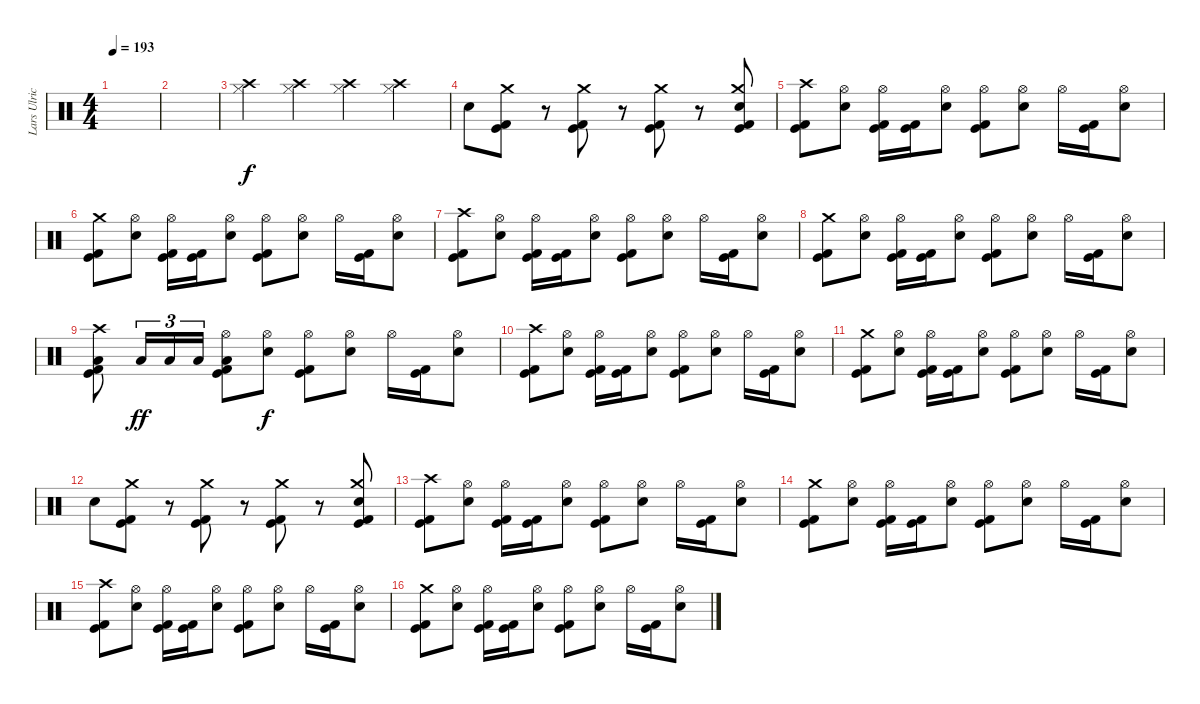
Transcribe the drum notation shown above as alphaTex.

\track ("Lars Ulrich" "Lars Ulric") {instrument percussion}
\staff {score}
\articulation defaults
\ts (4 4)
\tempo 193
\clef neutral
\ks c
|
|
("Hi-Hat (closed)" "Crash high (hit)").4 ("Hi-Hat (closed)" "Crash high (hit)").4 ("Hi-Hat (closed)" "Crash high (hit)").4 ("Hi-Hat (closed)" "Crash high (hit)").4 |
"Electric Snare (hit)".8 ("Crash medium (hit)" "Kick (hit) 2" "Kick (hit)").8 r.8 ("Crash medium (hit)" "Kick (hit)" "Kick (hit) 2").8 r.8 ("Crash medium (hit)" "Kick (hit)" "Kick (hit) 2").8 r.8 ("Crash medium (hit)" "Electric Snare (hit)" "Kick (hit)" "Kick (hit) 2").8 |
("Crash high (hit)" "Kick (hit) 2" "Kick (hit)").8 ("Hi-Hat (open)" "Electric Snare (hit)").8 ("Hi-Hat (open)" "Kick (hit) 2" "Kick (hit)").16 ("Kick (hit) 2" "Kick (hit)").16 ("Hi-Hat (open)" "Electric Snare (hit)").8 ("Hi-Hat (open)" "Kick (hit) 2" "Kick (hit)").8 ("Hi-Hat (open)" "Electric Snare (hit)").8 "Hi-Hat (open)".16 ("Kick (hit) 2" "Kick (hit)").16 ("Hi-Hat (open)" "Electric Snare (hit)").8 |
("Crash medium (hit)" "Kick (hit) 2" "Kick (hit)").8 ("Hi-Hat (open)" "Electric Snare (hit)").8 ("Hi-Hat (open)" "Kick (hit) 2" "Kick (hit)").16 ("Kick (hit) 2" "Kick (hit)").16 ("Hi-Hat (open)" "Electric Snare (hit)").8 ("Hi-Hat (open)" "Kick (hit) 2" "Kick (hit)").8 ("Hi-Hat (open)" "Electric Snare (hit)").8 "Hi-Hat (open)".16 ("Kick (hit) 2" "Kick (hit)").16 ("Hi-Hat (open)" "Electric Snare (hit)").8 |
("Crash high (hit)" "Kick (hit) 2" "Kick (hit)").8 ("Hi-Hat (open)" "Electric Snare (hit)").8 ("Hi-Hat (open)" "Kick (hit) 2" "Kick (hit)").16 ("Kick (hit) 2" "Kick (hit)").16 ("Hi-Hat (open)" "Electric Snare (hit)").8 ("Hi-Hat (open)" "Kick (hit) 2" "Kick (hit)").8 ("Hi-Hat (open)" "Electric Snare (hit)").8 "Hi-Hat (open)".16 ("Kick (hit) 2" "Kick (hit)").16 ("Hi-Hat (open)" "Electric Snare (hit)").8 |
("Crash medium (hit)" "Kick (hit) 2" "Kick (hit)").8 ("Hi-Hat (open)" "Electric Snare (hit)").8 ("Hi-Hat (open)" "Kick (hit) 2" "Kick (hit)").16 ("Kick (hit) 2" "Kick (hit)").16 ("Hi-Hat (open)" "Electric Snare (hit)").8 ("Hi-Hat (open)" "Kick (hit) 2" "Kick (hit)").8 ("Hi-Hat (open)" "Electric Snare (hit)").8 "Hi-Hat (open)".16 ("Kick (hit) 2" "Kick (hit)").16 ("Hi-Hat (open)" "Electric Snare (hit)").8 |
("Crash high (hit)" "Low Tom (hit)" "Kick (hit) 2" "Kick (hit)").8 "Low Tom (hit)".16{tu (3 2) dy ff} "Low Tom (hit)".16{tu (3 2)} "Low Tom (hit)".16{tu (3 2)} ("Hi-Hat (open)" "Low Tom (hit)" "Kick (hit) 2" "Kick (hit)").8 ("Hi-Hat (open)" "Electric Snare (hit)").8{dy f} ("Hi-Hat (open)" "Kick (hit) 2" "Kick (hit)").8 ("Hi-Hat (open)" "Electric Snare (hit)").8 "Hi-Hat (open)".16 ("Kick (hit) 2" "Kick (hit)").16 ("Hi-Hat (open)" "Electric Snare (hit)").8 |
("Crash high (hit)" "Kick (hit) 2" "Kick (hit)").8 ("Hi-Hat (open)" "Electric Snare (hit)").8 ("Hi-Hat (open)" "Kick (hit) 2" "Kick (hit)").16 ("Kick (hit) 2" "Kick (hit)").16 ("Hi-Hat (open)" "Electric Snare (hit)").8 ("Hi-Hat (open)" "Kick (hit) 2" "Kick (hit)").8 ("Hi-Hat (open)" "Electric Snare (hit)").8 "Hi-Hat (open)".16 ("Kick (hit) 2" "Kick (hit)").16 ("Hi-Hat (open)" "Electric Snare (hit)").8 |
("Crash medium (hit)" "Kick (hit) 2" "Kick (hit)").8 ("Hi-Hat (open)" "Electric Snare (hit)").8 ("Hi-Hat (open)" "Kick (hit) 2" "Kick (hit)").16 ("Kick (hit) 2" "Kick (hit)").16 ("Hi-Hat (open)" "Electric Snare (hit)").8 ("Hi-Hat (open)" "Kick (hit) 2" "Kick (hit)").8 ("Hi-Hat (open)" "Electric Snare (hit)").8 "Hi-Hat (open)".16 ("Kick (hit) 2" "Kick (hit)").16 ("Hi-Hat (open)" "Electric Snare (hit)").8 |
"Electric Snare (hit)".8 ("Crash medium (hit)" "Kick (hit) 2" "Kick (hit)").8 r.8 ("Crash medium (hit)" "Kick (hit)" "Kick (hit) 2").8 r.8 ("Crash medium (hit)" "Kick (hit)" "Kick (hit) 2").8 r.8 ("Crash medium (hit)" "Electric Snare (hit)" "Kick (hit)" "Kick (hit) 2").8 |
("Crash high (hit)" "Kick (hit) 2" "Kick (hit)").8 ("Hi-Hat (open)" "Electric Snare (hit)").8 ("Hi-Hat (open)" "Kick (hit) 2" "Kick (hit)").16 ("Kick (hit) 2" "Kick (hit)").16 ("Hi-Hat (open)" "Electric Snare (hit)").8 ("Hi-Hat (open)" "Kick (hit) 2" "Kick (hit)").8 ("Hi-Hat (open)" "Electric Snare (hit)").8 "Hi-Hat (open)".16 ("Kick (hit) 2" "Kick (hit)").16 ("Hi-Hat (open)" "Electric Snare (hit)").8 |
("Crash medium (hit)" "Kick (hit) 2" "Kick (hit)").8 ("Hi-Hat (open)" "Electric Snare (hit)").8 ("Hi-Hat (open)" "Kick (hit) 2" "Kick (hit)").16 ("Kick (hit) 2" "Kick (hit)").16 ("Hi-Hat (open)" "Electric Snare (hit)").8 ("Hi-Hat (open)" "Kick (hit) 2" "Kick (hit)").8 ("Hi-Hat (open)" "Electric Snare (hit)").8 "Hi-Hat (open)".16 ("Kick (hit) 2" "Kick (hit)").16 ("Hi-Hat (open)" "Electric Snare (hit)").8 |
("Crash high (hit)" "Kick (hit) 2" "Kick (hit)").8 ("Hi-Hat (open)" "Electric Snare (hit)").8 ("Hi-Hat (open)" "Kick (hit) 2" "Kick (hit)").16 ("Kick (hit) 2" "Kick (hit)").16 ("Hi-Hat (open)" "Electric Snare (hit)").8 ("Hi-Hat (open)" "Kick (hit) 2" "Kick (hit)").8 ("Hi-Hat (open)" "Electric Snare (hit)").8 "Hi-Hat (open)".16 ("Kick (hit) 2" "Kick (hit)").16 ("Hi-Hat (open)" "Electric Snare (hit)").8 |
("Crash medium (hit)" "Kick (hit) 2" "Kick (hit)").8 ("Hi-Hat (open)" "Electric Snare (hit)").8 ("Hi-Hat (open)" "Kick (hit) 2" "Kick (hit)").16 ("Kick (hit) 2" "Kick (hit)").16 ("Hi-Hat (open)" "Electric Snare (hit)").8 ("Hi-Hat (open)" "Kick (hit) 2" "Kick (hit)").8 ("Hi-Hat (open)" "Electric Snare (hit)").8 "Hi-Hat (open)".16 ("Kick (hit) 2" "Kick (hit)").16 ("Hi-Hat (open)" "Electric Snare (hit)").8
